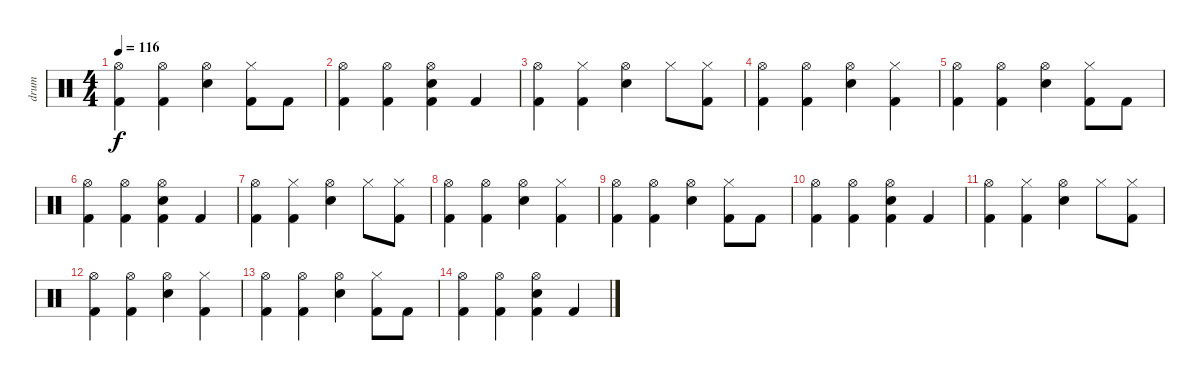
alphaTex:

\track ("drum" "drum") {instrument percussion}
\staff {score}
\articulation defaults
\ts (4 4)
\tempo 116
\clef neutral
\ks c
("Hi-Hat (open)" "Kick (hit) 2").4{dy f} ("Hi-Hat (open)" "Kick (hit) 2").4 ("Hi-Hat (open)" "Electric Snare (hit)").4 ("Hi-Hat (closed)" "Kick (hit) 2").8 "Kick (hit) 2".8 |
("Hi-Hat (open)" "Kick (hit) 2").4 ("Hi-Hat (open)" "Kick (hit) 2").4 ("Hi-Hat (open)" "Electric Snare (hit)" "Kick (hit) 2").4 "Kick (hit) 2".4 |
("Hi-Hat (open)" "Kick (hit) 2").4 ("Hi-Hat (closed)" "Kick (hit) 2").4 ("Hi-Hat (open)" "Electric Snare (hit)").4 "Hi-Hat (closed)".8 ("Hi-Hat (closed)" "Kick (hit) 2").8 |
("Hi-Hat (open)" "Kick (hit) 2").4 ("Hi-Hat (open)" "Kick (hit) 2").4 ("Hi-Hat (open)" "Electric Snare (hit)").4 ("Hi-Hat (closed)" "Kick (hit) 2").4 |
("Hi-Hat (open)" "Kick (hit) 2").4 ("Hi-Hat (open)" "Kick (hit) 2").4 ("Hi-Hat (open)" "Electric Snare (hit)").4 ("Hi-Hat (closed)" "Kick (hit) 2").8 "Kick (hit) 2".8 |
("Hi-Hat (open)" "Kick (hit) 2").4 ("Hi-Hat (open)" "Kick (hit) 2").4 ("Hi-Hat (open)" "Electric Snare (hit)" "Kick (hit) 2").4 "Kick (hit) 2".4 |
("Hi-Hat (open)" "Kick (hit) 2").4 ("Hi-Hat (closed)" "Kick (hit) 2").4 ("Hi-Hat (open)" "Electric Snare (hit)").4 "Hi-Hat (closed)".8 ("Hi-Hat (closed)" "Kick (hit) 2").8 |
("Hi-Hat (open)" "Kick (hit) 2").4 ("Hi-Hat (open)" "Kick (hit) 2").4 ("Hi-Hat (open)" "Electric Snare (hit)").4 ("Hi-Hat (closed)" "Kick (hit) 2").4 |
("Hi-Hat (open)" "Kick (hit) 2").4 ("Hi-Hat (open)" "Kick (hit) 2").4 ("Hi-Hat (open)" "Electric Snare (hit)").4 ("Hi-Hat (closed)" "Kick (hit) 2").8 "Kick (hit) 2".8 |
("Hi-Hat (open)" "Kick (hit) 2").4 ("Hi-Hat (open)" "Kick (hit) 2").4 ("Hi-Hat (open)" "Electric Snare (hit)" "Kick (hit) 2").4 "Kick (hit) 2".4 |
("Hi-Hat (open)" "Kick (hit) 2").4 ("Hi-Hat (closed)" "Kick (hit) 2").4 ("Hi-Hat (open)" "Electric Snare (hit)").4 "Hi-Hat (closed)".8 ("Hi-Hat (closed)" "Kick (hit) 2").8 |
("Hi-Hat (open)" "Kick (hit) 2").4 ("Hi-Hat (open)" "Kick (hit) 2").4 ("Hi-Hat (open)" "Electric Snare (hit)").4 ("Hi-Hat (closed)" "Kick (hit) 2").4 |
("Hi-Hat (open)" "Kick (hit) 2").4 ("Hi-Hat (open)" "Kick (hit) 2").4 ("Hi-Hat (open)" "Electric Snare (hit)").4 ("Hi-Hat (closed)" "Kick (hit) 2").8 "Kick (hit) 2".8 |
("Hi-Hat (open)" "Kick (hit) 2").4 ("Hi-Hat (open)" "Kick (hit) 2").4 ("Hi-Hat (open)" "Electric Snare (hit)" "Kick (hit) 2").4 "Kick (hit) 2".4
